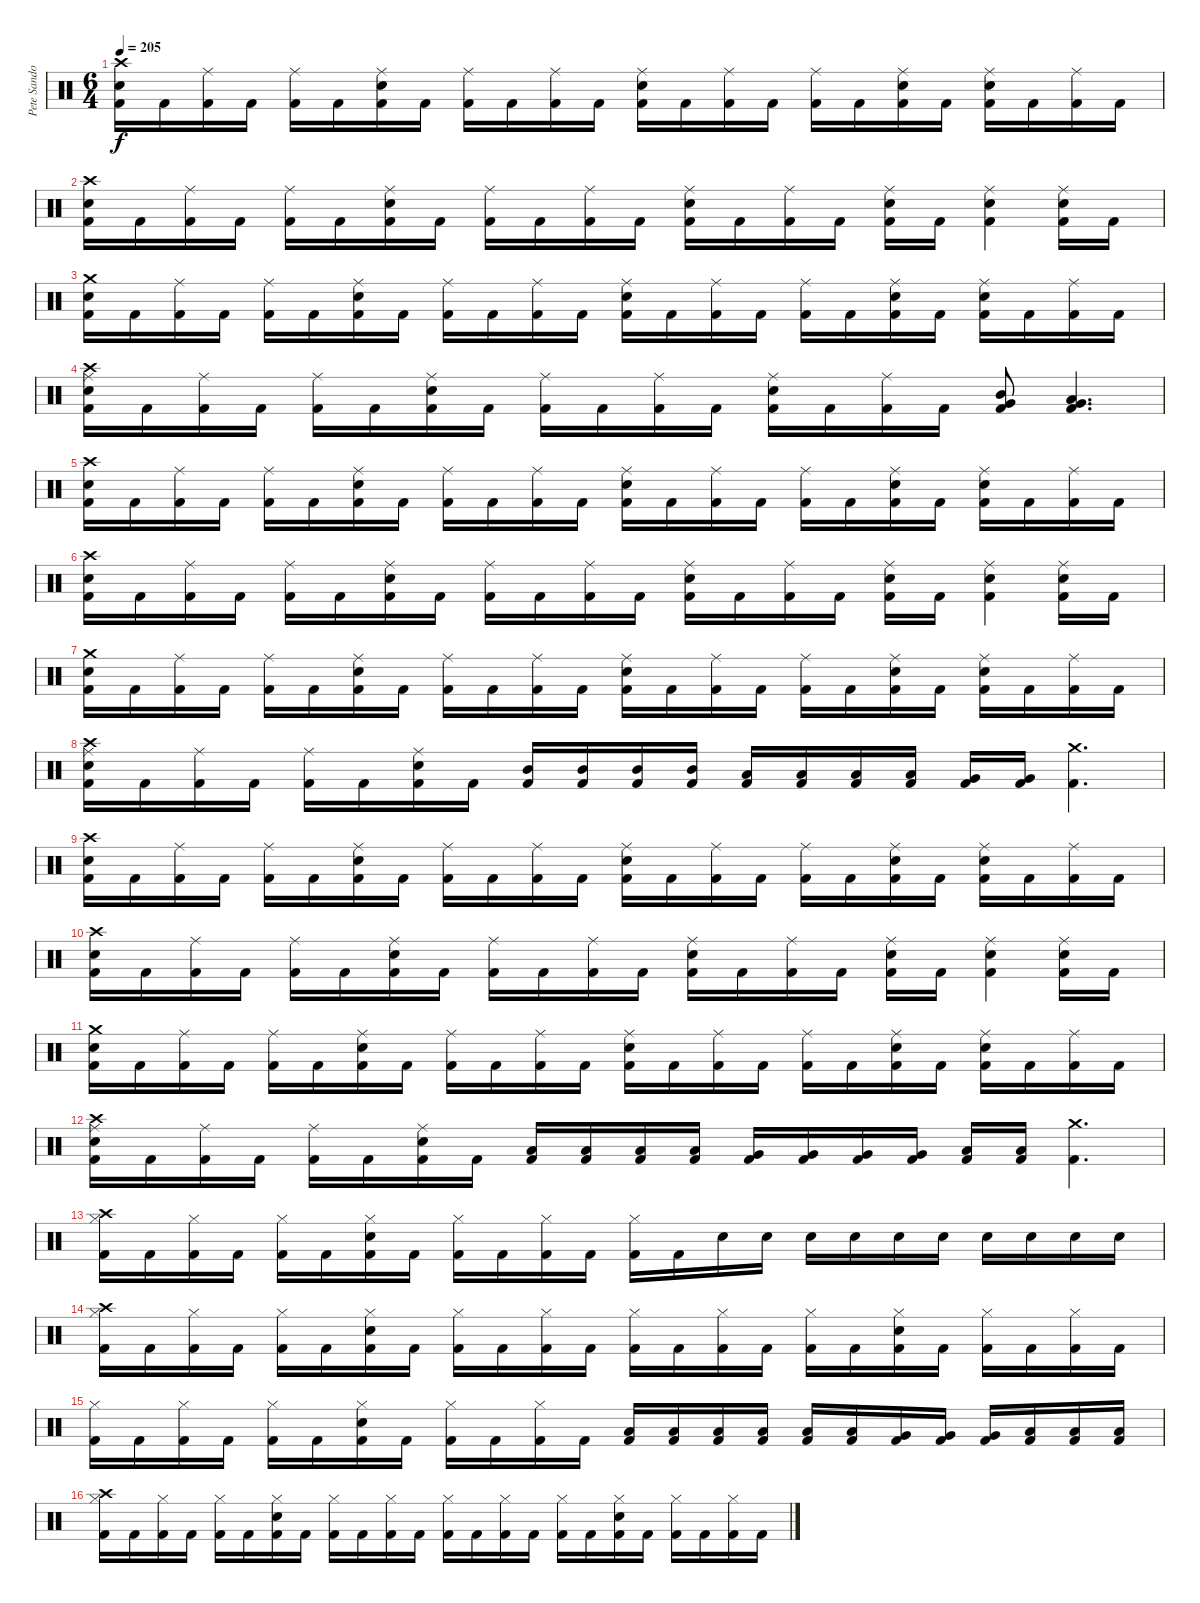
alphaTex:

\track ("Pete Sandoval" "Pete Sando") {instrument percussion}
\staff {score}
\articulation defaults
\ts (6 4)
\tempo 205
\clef neutral
\ks c
("Crash high (hit)" "Electric Snare (hit)" "Kick (hit) 2").16{dy f} "Kick (hit) 2".16 ("Ride (middle)" "Kick (hit) 2").16 "Kick (hit) 2".16 ("Ride (middle)" "Kick (hit) 2").16 "Kick (hit) 2".16 ("Electric Snare (hit)" "Ride (middle)" "Kick (hit) 2").16 "Kick (hit) 2".16 ("Ride (middle)" "Kick (hit) 2").16 "Kick (hit) 2".16 ("Ride (middle)" "Kick (hit) 2").16 "Kick (hit) 2".16 ("Electric Snare (hit)" "Ride (middle)" "Kick (hit) 2").16 "Kick (hit) 2".16 ("Ride (middle)" "Kick (hit) 2").16 "Kick (hit) 2".16 ("Ride (middle)" "Kick (hit) 2").16 "Kick (hit) 2".16 ("Electric Snare (hit)" "Ride (middle)" "Kick (hit) 2").16 "Kick (hit) 2".16 ("Electric Snare (hit)" "Ride (middle)" "Kick (hit) 2").16 "Kick (hit) 2".16 ("Ride (middle)" "Kick (hit) 2").16 "Kick (hit) 2".16 |
("Crash high (hit)" "Electric Snare (hit)" "Kick (hit) 2").16 "Kick (hit) 2".16 ("Ride (middle)" "Kick (hit) 2").16 "Kick (hit) 2".16 ("Ride (middle)" "Kick (hit) 2").16 "Kick (hit) 2".16 ("Electric Snare (hit)" "Ride (middle)" "Kick (hit) 2").16 "Kick (hit) 2".16 ("Ride (middle)" "Kick (hit) 2").16 "Kick (hit) 2".16 ("Ride (middle)" "Kick (hit) 2").16 "Kick (hit) 2".16 ("Electric Snare (hit)" "Ride (middle)" "Kick (hit) 2").16 "Kick (hit) 2".16 ("Ride (middle)" "Kick (hit) 2").16 "Kick (hit) 2".16 ("Electric Snare (hit)" "Ride (middle)" "Kick (hit) 2").16 "Kick (hit) 2".16 ("Electric Snare (hit)" "Ride (middle)" "Kick (hit) 2").4 ("Electric Snare (hit)" "Ride (middle)" "Kick (hit) 2").16 "Kick (hit) 2".16 |
("Crash medium (hit)" "Electric Snare (hit)" "Kick (hit) 2").16 "Kick (hit) 2".16 ("Ride (middle)" "Kick (hit) 2").16 "Kick (hit) 2".16 ("Ride (middle)" "Kick (hit) 2").16 "Kick (hit) 2".16 ("Electric Snare (hit)" "Ride (middle)" "Kick (hit) 2").16 "Kick (hit) 2".16 ("Ride (middle)" "Kick (hit) 2").16 "Kick (hit) 2".16 ("Ride (middle)" "Kick (hit) 2").16 "Kick (hit) 2".16 ("Electric Snare (hit)" "Ride (middle)" "Kick (hit) 2").16 "Kick (hit) 2".16 ("Ride (middle)" "Kick (hit) 2").16 "Kick (hit) 2".16 ("Ride (middle)" "Kick (hit) 2").16 "Kick (hit) 2".16 ("Electric Snare (hit)" "Ride (middle)" "Kick (hit) 2").16 "Kick (hit) 2".16 ("Electric Snare (hit)" "Ride (middle)" "Kick (hit) 2").16 "Kick (hit) 2".16 ("Ride (middle)" "Kick (hit) 2").16 "Kick (hit) 2".16 |
("Crash high (hit)" "Electric Snare (hit)" "Ride (middle)" "Kick (hit) 2").16 "Kick (hit) 2".16 ("Ride (middle)" "Kick (hit) 2").16 "Kick (hit) 2".16 ("Ride (middle)" "Kick (hit) 2").16 "Kick (hit) 2".16 ("Electric Snare (hit)" "Ride (middle)" "Kick (hit) 2").16 "Kick (hit) 2".16 ("Ride (middle)" "Kick (hit) 2").16 "Kick (hit) 2".16 ("Ride (middle)" "Kick (hit) 2").16 "Kick (hit) 2".16 ("Electric Snare (hit)" "Ride (middle)" "Kick (hit) 2").16 "Kick (hit) 2".16 ("Ride (middle)" "Kick (hit) 2").16 "Kick (hit) 2".16 ("Very Low Tom (hit)" "Mid Tom (hit)" "Kick (hit) 2").8 ("Very Low Tom (hit)" "Low Tom (hit)" "Kick (hit) 2").4{d} |
("Crash high (hit)" "Electric Snare (hit)" "Kick (hit) 2").16 "Kick (hit) 2".16 ("Ride (middle)" "Kick (hit) 2").16 "Kick (hit) 2".16 ("Ride (middle)" "Kick (hit) 2").16 "Kick (hit) 2".16 ("Electric Snare (hit)" "Ride (middle)" "Kick (hit) 2").16 "Kick (hit) 2".16 ("Ride (middle)" "Kick (hit) 2").16 "Kick (hit) 2".16 ("Ride (middle)" "Kick (hit) 2").16 "Kick (hit) 2".16 ("Electric Snare (hit)" "Ride (middle)" "Kick (hit) 2").16 "Kick (hit) 2".16 ("Ride (middle)" "Kick (hit) 2").16 "Kick (hit) 2".16 ("Ride (middle)" "Kick (hit) 2").16 "Kick (hit) 2".16 ("Electric Snare (hit)" "Ride (middle)" "Kick (hit) 2").16 "Kick (hit) 2".16 ("Electric Snare (hit)" "Ride (middle)" "Kick (hit) 2").16 "Kick (hit) 2".16 ("Ride (middle)" "Kick (hit) 2").16 "Kick (hit) 2".16 |
("Crash high (hit)" "Electric Snare (hit)" "Kick (hit) 2").16 "Kick (hit) 2".16 ("Ride (middle)" "Kick (hit) 2").16 "Kick (hit) 2".16 ("Ride (middle)" "Kick (hit) 2").16 "Kick (hit) 2".16 ("Electric Snare (hit)" "Ride (middle)" "Kick (hit) 2").16 "Kick (hit) 2".16 ("Ride (middle)" "Kick (hit) 2").16 "Kick (hit) 2".16 ("Ride (middle)" "Kick (hit) 2").16 "Kick (hit) 2".16 ("Electric Snare (hit)" "Ride (middle)" "Kick (hit) 2").16 "Kick (hit) 2".16 ("Ride (middle)" "Kick (hit) 2").16 "Kick (hit) 2".16 ("Electric Snare (hit)" "Ride (middle)" "Kick (hit) 2").16 "Kick (hit) 2".16 ("Electric Snare (hit)" "Ride (middle)" "Kick (hit) 2").4 ("Electric Snare (hit)" "Ride (middle)" "Kick (hit) 2").16 "Kick (hit) 2".16 |
("Crash medium (hit)" "Electric Snare (hit)" "Kick (hit) 2").16 "Kick (hit) 2".16 ("Ride (middle)" "Kick (hit) 2").16 "Kick (hit) 2".16 ("Ride (middle)" "Kick (hit) 2").16 "Kick (hit) 2".16 ("Electric Snare (hit)" "Ride (middle)" "Kick (hit) 2").16 "Kick (hit) 2".16 ("Ride (middle)" "Kick (hit) 2").16 "Kick (hit) 2".16 ("Ride (middle)" "Kick (hit) 2").16 "Kick (hit) 2".16 ("Electric Snare (hit)" "Ride (middle)" "Kick (hit) 2").16 "Kick (hit) 2".16 ("Ride (middle)" "Kick (hit) 2").16 "Kick (hit) 2".16 ("Ride (middle)" "Kick (hit) 2").16 "Kick (hit) 2".16 ("Electric Snare (hit)" "Ride (middle)" "Kick (hit) 2").16 "Kick (hit) 2".16 ("Electric Snare (hit)" "Ride (middle)" "Kick (hit) 2").16 "Kick (hit) 2".16 ("Ride (middle)" "Kick (hit) 2").16 "Kick (hit) 2".16 |
("Crash high (hit)" "Electric Snare (hit)" "Ride (middle)" "Kick (hit) 2").16 "Kick (hit) 2".16 ("Ride (middle)" "Kick (hit) 2").16 "Kick (hit) 2".16 ("Ride (middle)" "Kick (hit) 2").16 "Kick (hit) 2".16 ("Electric Snare (hit)" "Ride (middle)" "Kick (hit) 2").16 "Kick (hit) 2".16 ("Mid Tom (hit)" "Kick (hit) 2").16 ("Mid Tom (hit)" "Kick (hit) 2").16 ("Mid Tom (hit)" "Kick (hit) 2").16 ("Mid Tom (hit)" "Kick (hit) 2").16 ("Low Tom (hit)" "Kick (hit) 2").16 ("Low Tom (hit)" "Kick (hit) 2").16 ("Low Tom (hit)" "Kick (hit) 2").16 ("Low Tom (hit)" "Kick (hit) 2").16 ("Very Low Tom (hit)" "Kick (hit) 2").16 ("Very Low Tom (hit)" "Kick (hit) 2").16 ("Crash medium (hit)" "Kick (hit) 2").4{d} |
("Crash high (hit)" "Electric Snare (hit)" "Kick (hit) 2").16 "Kick (hit) 2".16 ("Ride (middle)" "Kick (hit) 2").16 "Kick (hit) 2".16 ("Ride (middle)" "Kick (hit) 2").16 "Kick (hit) 2".16 ("Electric Snare (hit)" "Ride (middle)" "Kick (hit) 2").16 "Kick (hit) 2".16 ("Ride (middle)" "Kick (hit) 2").16 "Kick (hit) 2".16 ("Ride (middle)" "Kick (hit) 2").16 "Kick (hit) 2".16 ("Electric Snare (hit)" "Ride (middle)" "Kick (hit) 2").16 "Kick (hit) 2".16 ("Ride (middle)" "Kick (hit) 2").16 "Kick (hit) 2".16 ("Ride (middle)" "Kick (hit) 2").16 "Kick (hit) 2".16 ("Electric Snare (hit)" "Ride (middle)" "Kick (hit) 2").16 "Kick (hit) 2".16 ("Electric Snare (hit)" "Ride (middle)" "Kick (hit) 2").16 "Kick (hit) 2".16 ("Ride (middle)" "Kick (hit) 2").16 "Kick (hit) 2".16 |
("Crash high (hit)" "Electric Snare (hit)" "Kick (hit) 2").16 "Kick (hit) 2".16 ("Ride (middle)" "Kick (hit) 2").16 "Kick (hit) 2".16 ("Ride (middle)" "Kick (hit) 2").16 "Kick (hit) 2".16 ("Electric Snare (hit)" "Ride (middle)" "Kick (hit) 2").16 "Kick (hit) 2".16 ("Ride (middle)" "Kick (hit) 2").16 "Kick (hit) 2".16 ("Ride (middle)" "Kick (hit) 2").16 "Kick (hit) 2".16 ("Electric Snare (hit)" "Ride (middle)" "Kick (hit) 2").16 "Kick (hit) 2".16 ("Ride (middle)" "Kick (hit) 2").16 "Kick (hit) 2".16 ("Electric Snare (hit)" "Ride (middle)" "Kick (hit) 2").16 "Kick (hit) 2".16 ("Electric Snare (hit)" "Ride (middle)" "Kick (hit) 2").4 ("Electric Snare (hit)" "Ride (middle)" "Kick (hit) 2").16 "Kick (hit) 2".16 |
("Crash medium (hit)" "Electric Snare (hit)" "Kick (hit) 2").16 "Kick (hit) 2".16 ("Ride (middle)" "Kick (hit) 2").16 "Kick (hit) 2".16 ("Ride (middle)" "Kick (hit) 2").16 "Kick (hit) 2".16 ("Electric Snare (hit)" "Ride (middle)" "Kick (hit) 2").16 "Kick (hit) 2".16 ("Ride (middle)" "Kick (hit) 2").16 "Kick (hit) 2".16 ("Ride (middle)" "Kick (hit) 2").16 "Kick (hit) 2".16 ("Electric Snare (hit)" "Ride (middle)" "Kick (hit) 2").16 "Kick (hit) 2".16 ("Ride (middle)" "Kick (hit) 2").16 "Kick (hit) 2".16 ("Ride (middle)" "Kick (hit) 2").16 "Kick (hit) 2".16 ("Electric Snare (hit)" "Ride (middle)" "Kick (hit) 2").16 "Kick (hit) 2".16 ("Electric Snare (hit)" "Ride (middle)" "Kick (hit) 2").16 "Kick (hit) 2".16 ("Ride (middle)" "Kick (hit) 2").16 "Kick (hit) 2".16 |
("Crash high (hit)" "Electric Snare (hit)" "Ride (middle)" "Kick (hit) 2").16 "Kick (hit) 2".16 ("Ride (middle)" "Kick (hit) 2").16 "Kick (hit) 2".16 ("Ride (middle)" "Kick (hit) 2").16 "Kick (hit) 2".16 ("Electric Snare (hit)" "Ride (middle)" "Kick (hit) 2").16 "Kick (hit) 2".16 ("Low Tom (hit)" "Kick (hit) 2").16 ("Low Tom (hit)" "Kick (hit) 2").16 ("Low Tom (hit)" "Kick (hit) 2").16 ("Low Tom (hit)" "Kick (hit) 2").16 ("Very Low Tom (hit)" "Kick (hit) 2").16 ("Very Low Tom (hit)" "Kick (hit) 2").16 ("Very Low Tom (hit)" "Kick (hit) 2").16 ("Very Low Tom (hit)" "Kick (hit) 2").16 ("Low Floor Tom (hit)" "Kick (hit) 2").16 ("Low Floor Tom (hit)" "Kick (hit) 2").16 ("Crash medium (hit)" "Kick (hit) 2").4{d} |
("Crash high (hit)" "Hi-Hat (closed)" "Kick (hit) 2").16 "Kick (hit) 2".16 ("Hi-Hat (closed)" "Kick (hit) 2").16 "Kick (hit) 2".16 ("Hi-Hat (closed)" "Kick (hit) 2").16 "Kick (hit) 2".16 ("Electric Snare (hit)" "Hi-Hat (closed)" "Kick (hit) 2").16 "Kick (hit) 2".16 ("Hi-Hat (closed)" "Kick (hit) 2").16 "Kick (hit) 2".16 ("Hi-Hat (closed)" "Kick (hit) 2").16 "Kick (hit) 2".16 ("Hi-Hat (closed)" "Kick (hit) 2").16 "Kick (hit) 2".16 "Electric Snare (hit)".16 "Electric Snare (hit)".16 "Electric Snare (hit)".16 "Electric Snare (hit)".16 "Electric Snare (hit)".16 "Electric Snare (hit)".16 "Electric Snare (hit)".16 "Electric Snare (hit)".16 "Electric Snare (hit)".16 "Electric Snare (hit)".16 |
("Crash high (hit)" "Hi-Hat (closed)" "Kick (hit) 2").16 "Kick (hit) 2".16 ("Hi-Hat (closed)" "Kick (hit) 2").16 "Kick (hit) 2".16 ("Hi-Hat (closed)" "Kick (hit) 2").16 "Kick (hit) 2".16 ("Electric Snare (hit)" "Hi-Hat (closed)" "Kick (hit) 2").16 "Kick (hit) 2".16 ("Hi-Hat (closed)" "Kick (hit) 2").16 "Kick (hit) 2".16 ("Hi-Hat (closed)" "Kick (hit) 2").16 "Kick (hit) 2".16 ("Hi-Hat (closed)" "Kick (hit) 2").16 "Kick (hit) 2".16 ("Hi-Hat (closed)" "Kick (hit) 2").16 "Kick (hit) 2".16 ("Hi-Hat (closed)" "Kick (hit) 2").16 "Kick (hit) 2".16 ("Electric Snare (hit)" "Hi-Hat (closed)" "Kick (hit) 2").16 "Kick (hit) 2".16 ("Hi-Hat (closed)" "Kick (hit) 2").16 "Kick (hit) 2".16 ("Hi-Hat (closed)" "Kick (hit) 2").16 "Kick (hit) 2".16 |
("Hi-Hat (closed)" "Kick (hit) 2").16 "Kick (hit) 2".16 ("Hi-Hat (closed)" "Kick (hit) 2").16 "Kick (hit) 2".16 ("Hi-Hat (closed)" "Kick (hit) 2").16 "Kick (hit) 2".16 ("Electric Snare (hit)" "Hi-Hat (closed)" "Kick (hit) 2").16 "Kick (hit) 2".16 ("Hi-Hat (closed)" "Kick (hit) 2").16 "Kick (hit) 2".16 ("Hi-Hat (closed)" "Kick (hit) 2").16 "Kick (hit) 2".16 ("Low Tom (hit)" "Kick (hit) 2").16 ("Low Tom (hit)" "Kick (hit) 2").16 ("Low Tom (hit)" "Kick (hit) 2").16 ("Low Tom (hit)" "Kick (hit) 2").16 ("Low Tom (hit)" "Kick (hit) 2").16 ("Low Tom (hit)" "Kick (hit) 2").16 ("Very Low Tom (hit)" "Kick (hit) 2").16 ("Very Low Tom (hit)" "Kick (hit) 2").16 ("Very Low Tom (hit)" "Kick (hit) 2").16 ("Low Floor Tom (hit)" "Kick (hit) 2").16 ("Low Floor Tom (hit)" "Kick (hit) 2").16 ("Low Floor Tom (hit)" "Kick (hit) 2").16 |
("Crash high (hit)" "Hi-Hat (closed)" "Kick (hit) 2").16 "Kick (hit) 2".16 ("Hi-Hat (closed)" "Kick (hit) 2").16 "Kick (hit) 2".16 ("Hi-Hat (closed)" "Kick (hit) 2").16 "Kick (hit) 2".16 ("Electric Snare (hit)" "Hi-Hat (closed)" "Kick (hit) 2").16 "Kick (hit) 2".16 ("Hi-Hat (closed)" "Kick (hit) 2").16 "Kick (hit) 2".16 ("Hi-Hat (closed)" "Kick (hit) 2").16 "Kick (hit) 2".16 ("Hi-Hat (closed)" "Kick (hit) 2").16 "Kick (hit) 2".16 ("Hi-Hat (closed)" "Kick (hit) 2").16 "Kick (hit) 2".16 ("Hi-Hat (closed)" "Kick (hit) 2").16 "Kick (hit) 2".16 ("Electric Snare (hit)" "Hi-Hat (closed)" "Kick (hit) 2").16 "Kick (hit) 2".16 ("Hi-Hat (closed)" "Kick (hit) 2").16 "Kick (hit) 2".16 ("Hi-Hat (closed)" "Kick (hit) 2").16 "Kick (hit) 2".16
